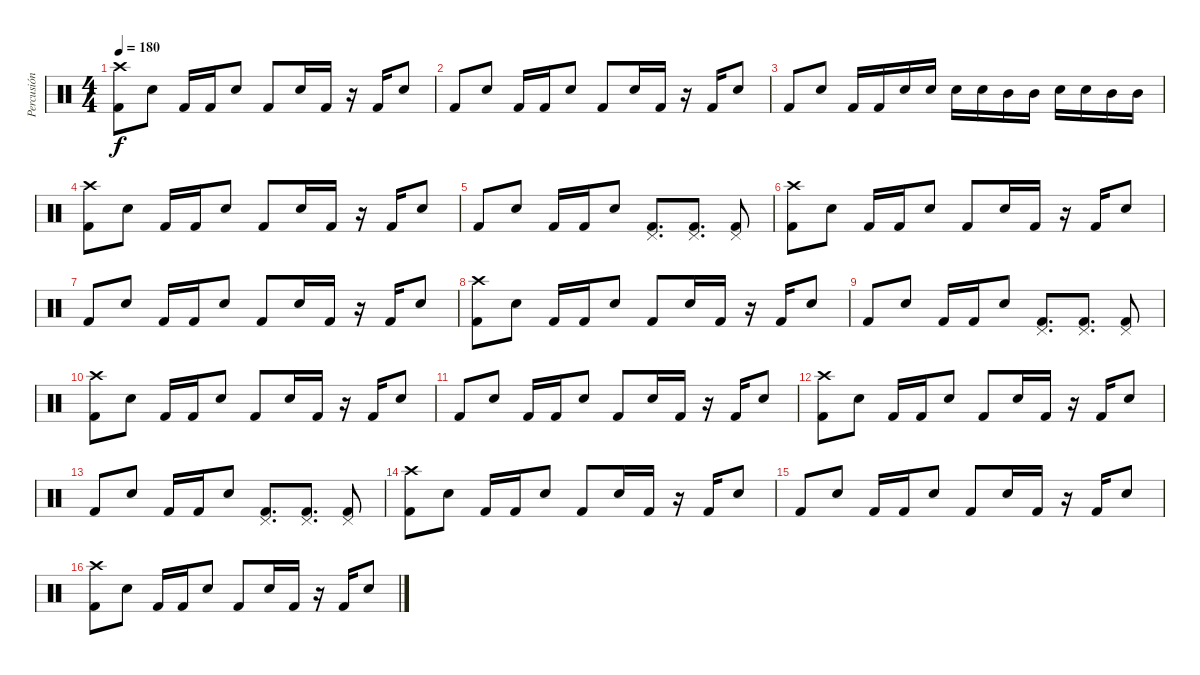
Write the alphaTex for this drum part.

\track ("Percusión" "Percusión") {instrument percussion}
\staff {score}
\articulation defaults
\ts (4 4)
\tempo 180
\clef neutral
\ks c
("Crash high (hit)" "Kick (hit) 2").8{dy f} "Snare (hit) 2".8 "Kick (hit) 2".16 "Kick (hit) 2".16 "Snare (hit) 2".8 "Kick (hit) 2".8 "Snare (hit) 2".16 "Kick (hit) 2".16 r.16 "Kick (hit) 2".16 "Snare (hit) 2".8 |
"Kick (hit) 2".8 "Snare (hit) 2".8 "Kick (hit) 2".16 "Kick (hit) 2".16 "Snare (hit) 2".8 "Kick (hit) 2".8 "Snare (hit) 2".16 "Kick (hit) 2".16 r.16 "Kick (hit) 2".16 "Snare (hit) 2".8 |
"Kick (hit) 2".8 "Snare (hit) 2".8 "Kick (hit) 2".16 "Kick (hit) 2".16 "Snare (hit) 2".16 "Snare (hit) 2".16 "Snare (hit) 2".16 "Snare (hit) 2".16 "Mid Tom (hit)".16 "Mid Tom (hit)".16 "Snare (hit) 2".16 "Snare (hit) 2".16 "Mid Tom (hit)".16 "Mid Tom (hit)".16 |
("Crash high (hit)" "Kick (hit) 2").8 "Snare (hit) 2".8 "Kick (hit) 2".16 "Kick (hit) 2".16 "Snare (hit) 2".8 "Kick (hit) 2".8 "Snare (hit) 2".16 "Kick (hit) 2".16 r.16 "Kick (hit) 2".16 "Snare (hit) 2".8 |
"Kick (hit) 2".8 "Snare (hit) 2".8 "Kick (hit) 2".16 "Kick (hit) 2".16 "Snare (hit) 2".8 ("Kick (hit) 2" "Pedal Hi-Hat (hit)").8{d} ("Kick (hit) 2" "Pedal Hi-Hat (hit)").8{d} ("Kick (hit) 2" "Pedal Hi-Hat (hit)").8 |
("Crash high (hit)" "Kick (hit) 2").8 "Snare (hit) 2".8 "Kick (hit) 2".16 "Kick (hit) 2".16 "Snare (hit) 2".8 "Kick (hit) 2".8 "Snare (hit) 2".16 "Kick (hit) 2".16 r.16 "Kick (hit) 2".16 "Snare (hit) 2".8 |
"Kick (hit) 2".8 "Snare (hit) 2".8 "Kick (hit) 2".16 "Kick (hit) 2".16 "Snare (hit) 2".8 "Kick (hit) 2".8 "Snare (hit) 2".16 "Kick (hit) 2".16 r.16 "Kick (hit) 2".16 "Snare (hit) 2".8 |
("Crash high (hit)" "Kick (hit) 2").8 "Snare (hit) 2".8 "Kick (hit) 2".16 "Kick (hit) 2".16 "Snare (hit) 2".8 "Kick (hit) 2".8 "Snare (hit) 2".16 "Kick (hit) 2".16 r.16 "Kick (hit) 2".16 "Snare (hit) 2".8 |
"Kick (hit) 2".8 "Snare (hit) 2".8 "Kick (hit) 2".16 "Kick (hit) 2".16 "Snare (hit) 2".8 ("Kick (hit) 2" "Pedal Hi-Hat (hit)").8{d} ("Kick (hit) 2" "Pedal Hi-Hat (hit)").8{d} ("Kick (hit) 2" "Pedal Hi-Hat (hit)").8 |
("Crash high (hit)" "Kick (hit) 2").8 "Snare (hit) 2".8 "Kick (hit) 2".16 "Kick (hit) 2".16 "Snare (hit) 2".8 "Kick (hit) 2".8 "Snare (hit) 2".16 "Kick (hit) 2".16 r.16 "Kick (hit) 2".16 "Snare (hit) 2".8 |
"Kick (hit) 2".8 "Snare (hit) 2".8 "Kick (hit) 2".16 "Kick (hit) 2".16 "Snare (hit) 2".8 "Kick (hit) 2".8 "Snare (hit) 2".16 "Kick (hit) 2".16 r.16 "Kick (hit) 2".16 "Snare (hit) 2".8 |
("Crash high (hit)" "Kick (hit) 2").8 "Snare (hit) 2".8 "Kick (hit) 2".16 "Kick (hit) 2".16 "Snare (hit) 2".8 "Kick (hit) 2".8 "Snare (hit) 2".16 "Kick (hit) 2".16 r.16 "Kick (hit) 2".16 "Snare (hit) 2".8 |
"Kick (hit) 2".8 "Snare (hit) 2".8 "Kick (hit) 2".16 "Kick (hit) 2".16 "Snare (hit) 2".8 ("Kick (hit) 2" "Pedal Hi-Hat (hit)").8{d} ("Kick (hit) 2" "Pedal Hi-Hat (hit)").8{d} ("Kick (hit) 2" "Pedal Hi-Hat (hit)").8 |
("Crash high (hit)" "Kick (hit) 2").8 "Snare (hit) 2".8 "Kick (hit) 2".16 "Kick (hit) 2".16 "Snare (hit) 2".8 "Kick (hit) 2".8 "Snare (hit) 2".16 "Kick (hit) 2".16 r.16 "Kick (hit) 2".16 "Snare (hit) 2".8 |
"Kick (hit) 2".8 "Snare (hit) 2".8 "Kick (hit) 2".16 "Kick (hit) 2".16 "Snare (hit) 2".8 "Kick (hit) 2".8 "Snare (hit) 2".16 "Kick (hit) 2".16 r.16 "Kick (hit) 2".16 "Snare (hit) 2".8 |
("Crash high (hit)" "Kick (hit) 2").8 "Snare (hit) 2".8 "Kick (hit) 2".16 "Kick (hit) 2".16 "Snare (hit) 2".8 "Kick (hit) 2".8 "Snare (hit) 2".16 "Kick (hit) 2".16 r.16 "Kick (hit) 2".16 "Snare (hit) 2".8
